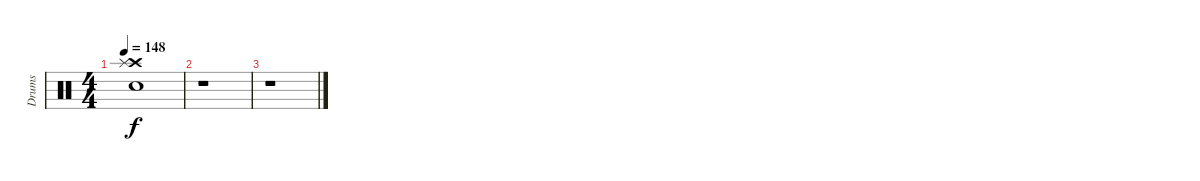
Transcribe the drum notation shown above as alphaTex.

\track ("Drums" "Drums") {instrument percussion}
\staff {score}
\articulation defaults
\ts (4 4)
\tempo 148
\clef neutral
\ks c
("Crash high (hit)" "Splash (hit)" "Snare (hit) 2").1{dy f} |
r.1 |
r.1
